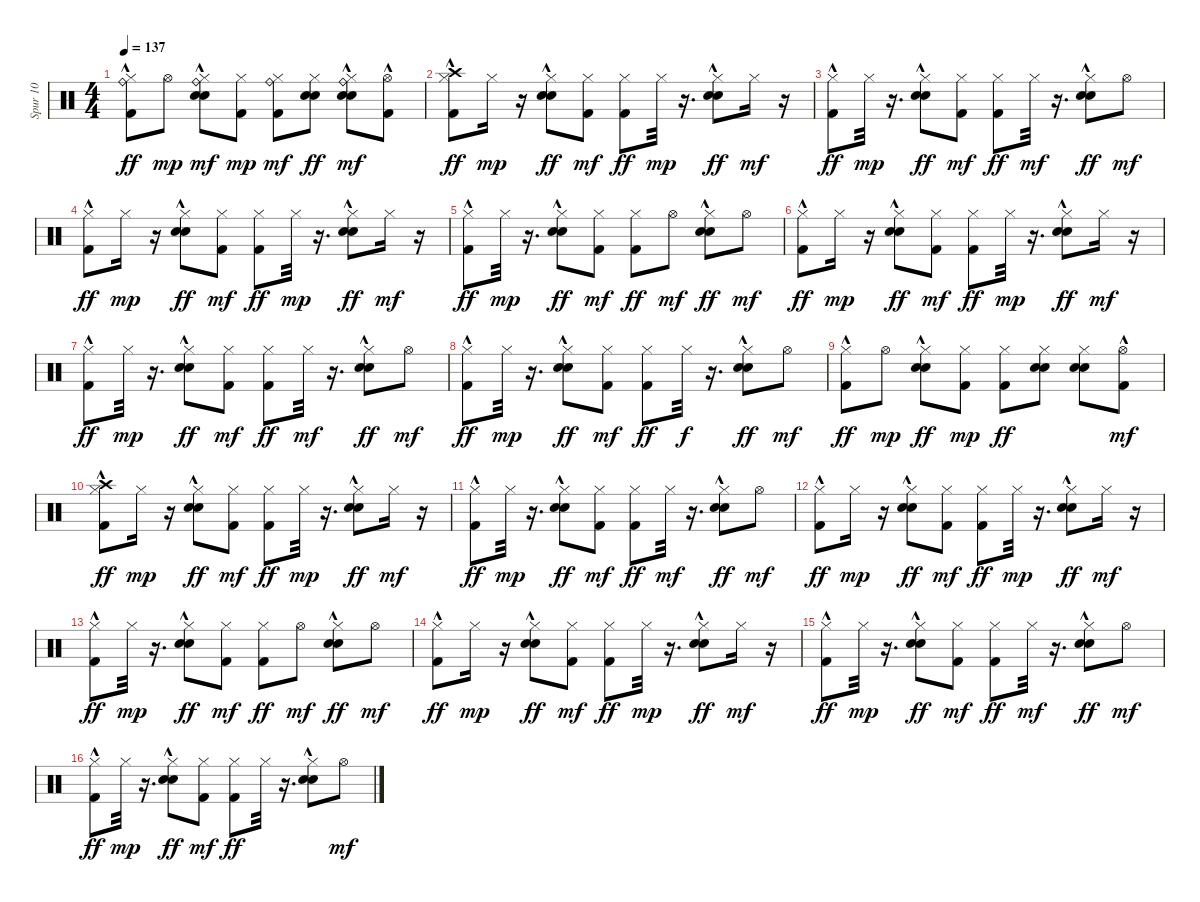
\track ("Spur 10" "Spur 10") {instrument percussion}
\staff {score}
\articulation defaults
\ts (4 4)
\tempo 137
\clef neutral
\ks c
("Kick (hit) 2"{hac} "Ride (bell)"{hac} "Hi-Hat (closed)").8{dy ff} "Hi-Hat (open)".8{dy mp} ("Electric Snare (hit)"{hac} "Snare (hit) 2"{hac} "Hi-Hat (closed)" "Ride (bell)"{hac}).8{dy mf} ("Kick (hit) 2" "Hi-Hat (closed)").8{dy mp} ("Kick (hit) 2" "Hi-Hat (closed)" "Ride (bell)").8{dy mf} ("Electric Snare (hit)" "Snare (hit) 2" "Hi-Hat (closed)").8{dy ff} ("Electric Snare (hit)" "Snare (hit) 2" "Hi-Hat (closed)" "Ride (bell)"{hac}).8{dy mf} ("Kick (hit) 2"{hac} "Hi-Hat (open)").8 |
("Kick (hit) 2"{hac} "Hi-Hat (closed)" "Crash high (hit)").8{dy ff} "Hi-Hat (closed)".16{dy mp} r.16 ("Electric Snare (hit)"{hac} "Snare (hit) 2"{hac} "Hi-Hat (closed)").8{dy ff} ("Kick (hit) 2" "Hi-Hat (closed)").8{dy mf} ("Kick (hit) 2" "Hi-Hat (closed)").8{dy ff} "Hi-Hat (closed)".32{dy mp} r.16{d} ("Electric Snare (hit)"{hac} "Snare (hit) 2"{hac} "Hi-Hat (closed)").8{dy ff} "Hi-Hat (closed)".16{dy mf} r.16 |
("Kick (hit) 2"{hac} "Hi-Hat (closed)").8{dy ff} "Hi-Hat (closed)".32{dy mp} r.16{d} ("Electric Snare (hit)"{hac} "Snare (hit) 2"{hac} "Hi-Hat (closed)").8{dy ff} ("Kick (hit) 2" "Hi-Hat (closed)").8{dy mf} ("Kick (hit) 2" "Hi-Hat (closed)").8{dy ff} "Hi-Hat (closed)".32{dy mf} r.16{d} ("Electric Snare (hit)"{hac} "Snare (hit) 2"{hac} "Hi-Hat (closed)").8{dy ff} "Hi-Hat (open)".8{dy mf} |
("Kick (hit) 2"{hac} "Hi-Hat (closed)").8{dy ff} "Hi-Hat (closed)".16{dy mp} r.16 ("Electric Snare (hit)"{hac} "Snare (hit) 2"{hac} "Hi-Hat (closed)").8{dy ff} ("Kick (hit) 2" "Hi-Hat (closed)").8{dy mf} ("Kick (hit) 2" "Hi-Hat (closed)").8{dy ff} "Hi-Hat (closed)".32{dy mp} r.16{d} ("Electric Snare (hit)"{hac} "Snare (hit) 2"{hac} "Hi-Hat (closed)").8{dy ff} "Hi-Hat (closed)".16{dy mf} r.16 |
("Kick (hit) 2"{hac} "Hi-Hat (closed)").8{dy ff} "Hi-Hat (closed)".32{dy mp} r.16{d} ("Electric Snare (hit)"{hac} "Snare (hit) 2"{hac} "Hi-Hat (closed)").8{dy ff} ("Kick (hit) 2" "Hi-Hat (closed)").8{dy mf} ("Kick (hit) 2" "Hi-Hat (closed)").8{dy ff} "Hi-Hat (open)".8{dy mf} ("Electric Snare (hit)"{hac} "Snare (hit) 2"{hac} "Hi-Hat (closed)").8{dy ff} "Hi-Hat (open)".8{dy mf} |
("Kick (hit) 2"{hac} "Hi-Hat (closed)").8{dy ff} "Hi-Hat (closed)".16{dy mp} r.16 ("Electric Snare (hit)"{hac} "Snare (hit) 2"{hac} "Hi-Hat (closed)").8{dy ff} ("Kick (hit) 2" "Hi-Hat (closed)").8{dy mf} ("Kick (hit) 2" "Hi-Hat (closed)").8{dy ff} "Hi-Hat (closed)".32{dy mp} r.16{d} ("Electric Snare (hit)"{hac} "Snare (hit) 2"{hac} "Hi-Hat (closed)").8{dy ff} "Hi-Hat (closed)".16{dy mf} r.16 |
("Kick (hit) 2"{hac} "Hi-Hat (closed)").8{dy ff} "Hi-Hat (closed)".32{dy mp} r.16{d} ("Electric Snare (hit)"{hac} "Snare (hit) 2"{hac} "Hi-Hat (closed)").8{dy ff} ("Kick (hit) 2" "Hi-Hat (closed)").8{dy mf} ("Kick (hit) 2" "Hi-Hat (closed)").8{dy ff} "Hi-Hat (closed)".32{dy mf} r.16{d} ("Electric Snare (hit)"{hac} "Snare (hit) 2"{hac} "Hi-Hat (closed)").8{dy ff} "Hi-Hat (open)".8{dy mf} |
("Kick (hit) 2"{hac} "Hi-Hat (closed)").8{dy ff} "Hi-Hat (closed)".32{dy mp} r.16{d} ("Electric Snare (hit)"{hac} "Snare (hit) 2"{hac} "Hi-Hat (closed)").8{dy ff} ("Kick (hit) 2" "Hi-Hat (closed)").8{dy mf} ("Kick (hit) 2" "Hi-Hat (closed)").8{dy ff} "Hi-Hat (closed)".32{dy f} r.16{d} ("Electric Snare (hit)"{hac} "Snare (hit) 2"{hac} "Hi-Hat (closed)").8{dy ff} "Hi-Hat (open)".8{dy mf} |
("Kick (hit) 2"{hac} "Hi-Hat (closed)").8{dy ff} "Hi-Hat (open)".8{dy mp} ("Electric Snare (hit)"{hac} "Snare (hit) 2"{hac} "Hi-Hat (closed)").8{dy ff} ("Kick (hit) 2" "Hi-Hat (closed)").8{dy mp} ("Kick (hit) 2" "Hi-Hat (closed)").8{dy ff} ("Electric Snare (hit)" "Snare (hit) 2" "Hi-Hat (closed)").8 ("Electric Snare (hit)" "Snare (hit) 2" "Hi-Hat (closed)").8 ("Kick (hit) 2"{hac} "Hi-Hat (open)").8{dy mf} |
("Kick (hit) 2"{hac} "Hi-Hat (closed)" "Crash high (hit)").8{dy ff} "Hi-Hat (closed)".16{dy mp} r.16 ("Electric Snare (hit)"{hac} "Snare (hit) 2"{hac} "Hi-Hat (closed)").8{dy ff} ("Kick (hit) 2" "Hi-Hat (closed)").8{dy mf} ("Kick (hit) 2" "Hi-Hat (closed)").8{dy ff} "Hi-Hat (closed)".32{dy mp} r.16{d} ("Electric Snare (hit)"{hac} "Snare (hit) 2"{hac} "Hi-Hat (closed)").8{dy ff} "Hi-Hat (closed)".16{dy mf} r.16 |
("Kick (hit) 2"{hac} "Hi-Hat (closed)").8{dy ff} "Hi-Hat (closed)".32{dy mp} r.16{d} ("Electric Snare (hit)"{hac} "Snare (hit) 2"{hac} "Hi-Hat (closed)").8{dy ff} ("Kick (hit) 2" "Hi-Hat (closed)").8{dy mf} ("Kick (hit) 2" "Hi-Hat (closed)").8{dy ff} "Hi-Hat (closed)".32{dy mf} r.16{d} ("Electric Snare (hit)"{hac} "Snare (hit) 2"{hac} "Hi-Hat (closed)").8{dy ff} "Hi-Hat (open)".8{dy mf} |
("Kick (hit) 2"{hac} "Hi-Hat (closed)").8{dy ff} "Hi-Hat (closed)".16{dy mp} r.16 ("Electric Snare (hit)"{hac} "Snare (hit) 2"{hac} "Hi-Hat (closed)").8{dy ff} ("Kick (hit) 2" "Hi-Hat (closed)").8{dy mf} ("Kick (hit) 2" "Hi-Hat (closed)").8{dy ff} "Hi-Hat (closed)".32{dy mp} r.16{d} ("Electric Snare (hit)"{hac} "Snare (hit) 2"{hac} "Hi-Hat (closed)").8{dy ff} "Hi-Hat (closed)".16{dy mf} r.16 |
("Kick (hit) 2"{hac} "Hi-Hat (closed)").8{dy ff} "Hi-Hat (closed)".32{dy mp} r.16{d} ("Electric Snare (hit)"{hac} "Snare (hit) 2"{hac} "Hi-Hat (closed)").8{dy ff} ("Kick (hit) 2" "Hi-Hat (closed)").8{dy mf} ("Kick (hit) 2" "Hi-Hat (closed)").8{dy ff} "Hi-Hat (open)".8{dy mf} ("Electric Snare (hit)"{hac} "Snare (hit) 2"{hac} "Hi-Hat (closed)").8{dy ff} "Hi-Hat (open)".8{dy mf} |
("Kick (hit) 2"{hac} "Hi-Hat (closed)").8{dy ff} "Hi-Hat (closed)".16{dy mp} r.16 ("Electric Snare (hit)"{hac} "Snare (hit) 2"{hac} "Hi-Hat (closed)").8{dy ff} ("Kick (hit) 2" "Hi-Hat (closed)").8{dy mf} ("Kick (hit) 2" "Hi-Hat (closed)").8{dy ff} "Hi-Hat (closed)".32{dy mp} r.16{d} ("Electric Snare (hit)"{hac} "Snare (hit) 2"{hac} "Hi-Hat (closed)").8{dy ff} "Hi-Hat (closed)".16{dy mf} r.16 |
("Kick (hit) 2"{hac} "Hi-Hat (closed)").8{dy ff} "Hi-Hat (closed)".32{dy mp} r.16{d} ("Electric Snare (hit)"{hac} "Snare (hit) 2"{hac} "Hi-Hat (closed)").8{dy ff} ("Kick (hit) 2" "Hi-Hat (closed)").8{dy mf} ("Kick (hit) 2" "Hi-Hat (closed)").8{dy ff} "Hi-Hat (closed)".32{dy mf} r.16{d} ("Electric Snare (hit)"{hac} "Snare (hit) 2"{hac} "Hi-Hat (closed)").8{dy ff} "Hi-Hat (open)".8{dy mf} |
("Kick (hit) 2"{hac} "Hi-Hat (closed)").8{dy ff} "Hi-Hat (closed)".32{dy mp} r.16{d} ("Electric Snare (hit)"{hac} "Snare (hit) 2"{hac} "Hi-Hat (closed)").8{dy ff} ("Kick (hit) 2" "Hi-Hat (closed)").8{dy mf} ("Kick (hit) 2" "Hi-Hat (closed)").8{dy ff} "Hi-Hat (closed)".32 r.16{d} ("Electric Snare (hit)"{hac} "Snare (hit) 2"{hac} "Hi-Hat (closed)").8 "Hi-Hat (open)".8{dy mf}
